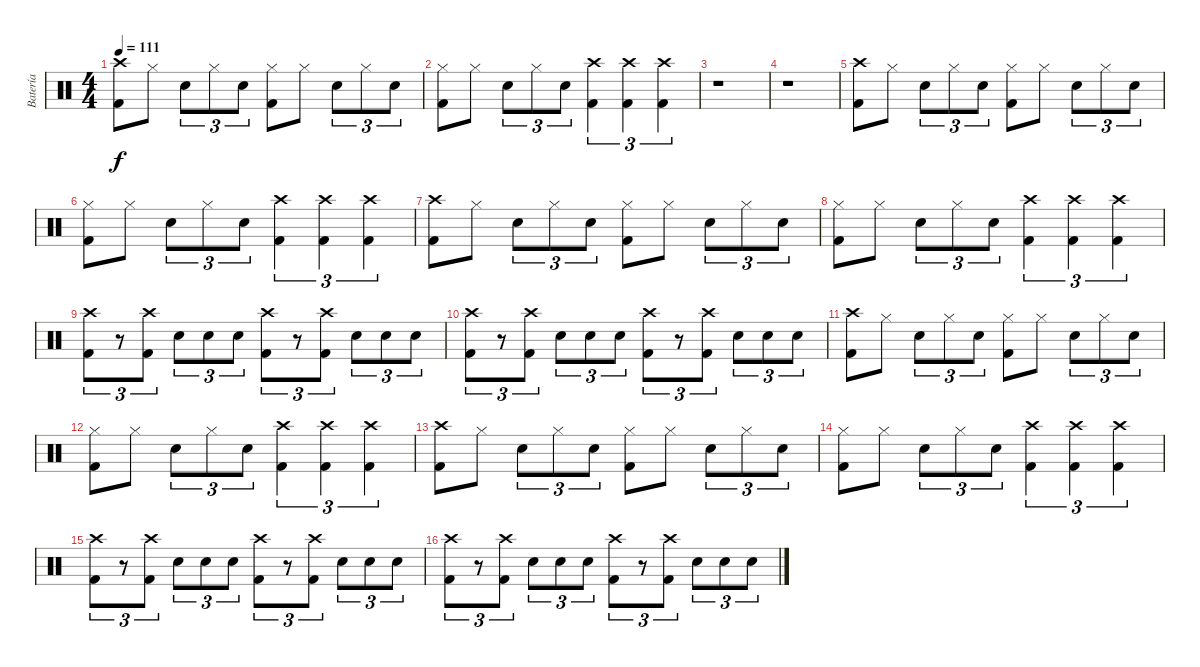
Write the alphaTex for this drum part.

\track ("Batería" "Batería") {instrument percussion}
\staff {score}
\articulation defaults
\ts (4 4)
\tempo 111
\clef neutral
\ks c
("Crash high (hit)" "Kick (hit) 2").8{dy f} "Hi-Hat (closed)".8 "Snare (hit) 2".8{tu (3 2)} "Hi-Hat (closed)".8{tu (3 2)} "Snare (hit) 2".8{tu (3 2)} ("Hi-Hat (closed)" "Kick (hit) 2").8 "Hi-Hat (closed)".8 "Snare (hit) 2".8{tu (3 2)} "Hi-Hat (closed)".8{tu (3 2)} "Snare (hit) 2".8{tu (3 2)} |
("Hi-Hat (closed)" "Kick (hit) 2").8 "Hi-Hat (closed)".8 "Snare (hit) 2".8{tu (3 2)} "Hi-Hat (closed)".8{tu (3 2)} "Snare (hit) 2".8{tu (3 2)} ("Crash high (hit)" "Kick (hit) 2").4{tu (3 2)} ("Crash high (hit)" "Kick (hit) 2").4{tu (3 2)} ("Crash high (hit)" "Kick (hit) 2").4{tu (3 2)} |
r.1 |
r.1 |
("Crash high (hit)" "Kick (hit) 2").8 "Hi-Hat (closed)".8 "Snare (hit) 2".8{tu (3 2)} "Hi-Hat (closed)".8{tu (3 2)} "Snare (hit) 2".8{tu (3 2)} ("Hi-Hat (closed)" "Kick (hit) 2").8 "Hi-Hat (closed)".8 "Snare (hit) 2".8{tu (3 2)} "Hi-Hat (closed)".8{tu (3 2)} "Snare (hit) 2".8{tu (3 2)} |
("Hi-Hat (closed)" "Kick (hit) 2").8 "Hi-Hat (closed)".8 "Snare (hit) 2".8{tu (3 2)} "Hi-Hat (closed)".8{tu (3 2)} "Snare (hit) 2".8{tu (3 2)} ("Crash high (hit)" "Kick (hit) 2").4{tu (3 2)} ("Crash high (hit)" "Kick (hit) 2").4{tu (3 2)} ("Crash high (hit)" "Kick (hit) 2").4{tu (3 2)} |
("Crash high (hit)" "Kick (hit) 2").8 "Hi-Hat (closed)".8 "Snare (hit) 2".8{tu (3 2)} "Hi-Hat (closed)".8{tu (3 2)} "Snare (hit) 2".8{tu (3 2)} ("Hi-Hat (closed)" "Kick (hit) 2").8 "Hi-Hat (closed)".8 "Snare (hit) 2".8{tu (3 2)} "Hi-Hat (closed)".8{tu (3 2)} "Snare (hit) 2".8{tu (3 2)} |
("Hi-Hat (closed)" "Kick (hit) 2").8 "Hi-Hat (closed)".8 "Snare (hit) 2".8{tu (3 2)} "Hi-Hat (closed)".8{tu (3 2)} "Snare (hit) 2".8{tu (3 2)} ("Crash high (hit)" "Kick (hit) 2").4{tu (3 2)} ("Crash high (hit)" "Kick (hit) 2").4{tu (3 2)} ("Crash high (hit)" "Kick (hit) 2").4{tu (3 2)} |
("Crash high (hit)" "Kick (hit) 2").8{tu (3 2)} r.8{tu (3 2)} ("Crash high (hit)" "Kick (hit) 2").8{tu (3 2)} "Snare (hit) 2".8{tu (3 2)} "Snare (hit) 2".8{tu (3 2)} "Snare (hit) 2".8{tu (3 2)} ("Crash high (hit)" "Kick (hit) 2").8{tu (3 2)} r.8{tu (3 2)} ("Crash high (hit)" "Kick (hit) 2").8{tu (3 2)} "Snare (hit) 2".8{tu (3 2)} "Snare (hit) 2".8{tu (3 2)} "Snare (hit) 2".8{tu (3 2)} |
("Crash high (hit)" "Kick (hit) 2").8{tu (3 2)} r.8{tu (3 2)} ("Crash high (hit)" "Kick (hit) 2").8{tu (3 2)} "Snare (hit) 2".8{tu (3 2)} "Snare (hit) 2".8{tu (3 2)} "Snare (hit) 2".8{tu (3 2)} ("Crash high (hit)" "Kick (hit) 2").8{tu (3 2)} r.8{tu (3 2)} ("Crash high (hit)" "Kick (hit) 2").8{tu (3 2)} "Snare (hit) 2".8{tu (3 2)} "Snare (hit) 2".8{tu (3 2)} "Snare (hit) 2".8{tu (3 2)} |
("Crash high (hit)" "Kick (hit) 2").8 "Hi-Hat (closed)".8 "Snare (hit) 2".8{tu (3 2)} "Hi-Hat (closed)".8{tu (3 2)} "Snare (hit) 2".8{tu (3 2)} ("Hi-Hat (closed)" "Kick (hit) 2").8 "Hi-Hat (closed)".8 "Snare (hit) 2".8{tu (3 2)} "Hi-Hat (closed)".8{tu (3 2)} "Snare (hit) 2".8{tu (3 2)} |
("Hi-Hat (closed)" "Kick (hit) 2").8 "Hi-Hat (closed)".8 "Snare (hit) 2".8{tu (3 2)} "Hi-Hat (closed)".8{tu (3 2)} "Snare (hit) 2".8{tu (3 2)} ("Crash high (hit)" "Kick (hit) 2").4{tu (3 2)} ("Crash high (hit)" "Kick (hit) 2").4{tu (3 2)} ("Crash high (hit)" "Kick (hit) 2").4{tu (3 2)} |
("Crash high (hit)" "Kick (hit) 2").8 "Hi-Hat (closed)".8 "Snare (hit) 2".8{tu (3 2)} "Hi-Hat (closed)".8{tu (3 2)} "Snare (hit) 2".8{tu (3 2)} ("Hi-Hat (closed)" "Kick (hit) 2").8 "Hi-Hat (closed)".8 "Snare (hit) 2".8{tu (3 2)} "Hi-Hat (closed)".8{tu (3 2)} "Snare (hit) 2".8{tu (3 2)} |
("Hi-Hat (closed)" "Kick (hit) 2").8 "Hi-Hat (closed)".8 "Snare (hit) 2".8{tu (3 2)} "Hi-Hat (closed)".8{tu (3 2)} "Snare (hit) 2".8{tu (3 2)} ("Crash high (hit)" "Kick (hit) 2").4{tu (3 2)} ("Crash high (hit)" "Kick (hit) 2").4{tu (3 2)} ("Crash high (hit)" "Kick (hit) 2").4{tu (3 2)} |
("Crash high (hit)" "Kick (hit) 2").8{tu (3 2)} r.8{tu (3 2)} ("Crash high (hit)" "Kick (hit) 2").8{tu (3 2)} "Snare (hit) 2".8{tu (3 2)} "Snare (hit) 2".8{tu (3 2)} "Snare (hit) 2".8{tu (3 2)} ("Crash high (hit)" "Kick (hit) 2").8{tu (3 2)} r.8{tu (3 2)} ("Crash high (hit)" "Kick (hit) 2").8{tu (3 2)} "Snare (hit) 2".8{tu (3 2)} "Snare (hit) 2".8{tu (3 2)} "Snare (hit) 2".8{tu (3 2)} |
("Crash high (hit)" "Kick (hit) 2").8{tu (3 2)} r.8{tu (3 2)} ("Crash high (hit)" "Kick (hit) 2").8{tu (3 2)} "Snare (hit) 2".8{tu (3 2)} "Snare (hit) 2".8{tu (3 2)} "Snare (hit) 2".8{tu (3 2)} ("Crash high (hit)" "Kick (hit) 2").8{tu (3 2)} r.8{tu (3 2)} ("Crash high (hit)" "Kick (hit) 2").8{tu (3 2)} "Snare (hit) 2".8{tu (3 2)} "Snare (hit) 2".8{tu (3 2)} "Snare (hit) 2".8{tu (3 2)}
